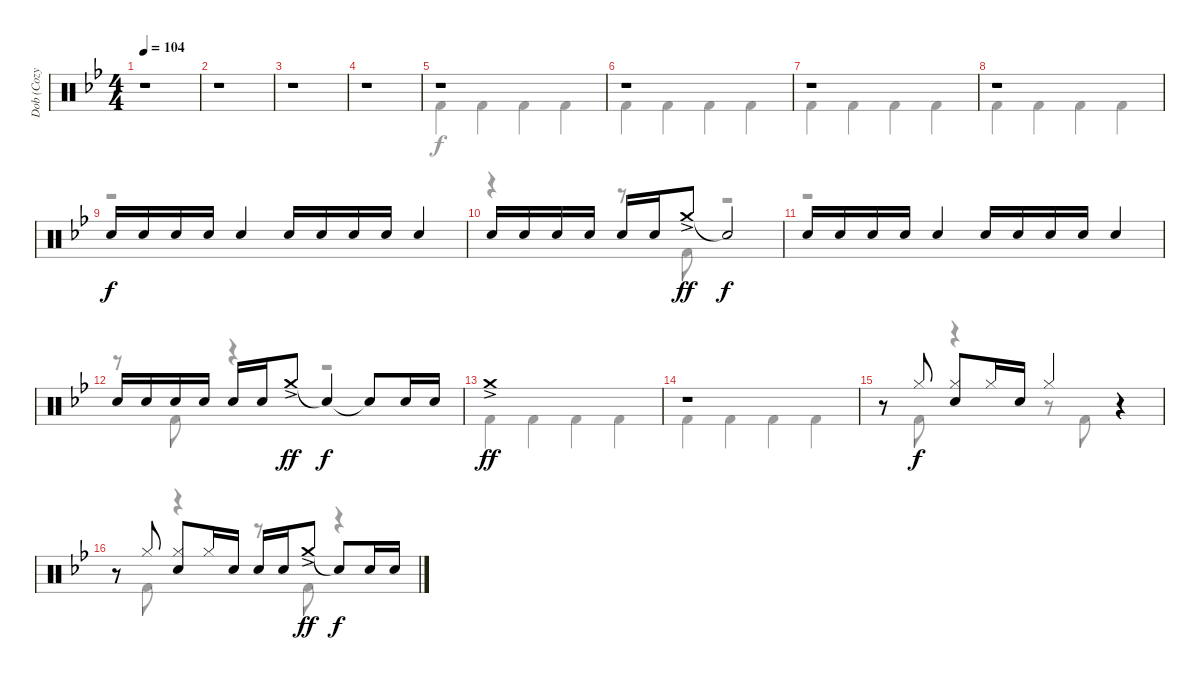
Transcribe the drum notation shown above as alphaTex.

\track ("Dob (Cozy Powell)" "Dob (Cozy ") {instrument percussion}
\staff {score}
\articulation defaults
\voice
\ts (4 4)
\tempo 104
\clef neutral
\ks bb
r.1{dy f} |
r.1 |
r.1 |
r.1 |
r.1 |
r.1 |
r.1 |
r.1 |
"Electric Snare (hit)".16 "Electric Snare (hit)".16 "Electric Snare (hit)".16 "Electric Snare (hit)".16 "Electric Snare (hit)".4 "Electric Snare (hit)".16 "Electric Snare (hit)".16 "Electric Snare (hit)".16 "Electric Snare (hit)".16 "Electric Snare (hit)".4 |
"Electric Snare (hit)".16 "Electric Snare (hit)".16 "Electric Snare (hit)".16 "Electric Snare (hit)".16 "Electric Snare (hit)".16 "Electric Snare (hit)".16 "Crash medium (hit)"{ac}.8{dy ff} "Snare (hit)"{t}.2{dy f} |
"Electric Snare (hit)".16 "Electric Snare (hit)".16 "Electric Snare (hit)".16 "Electric Snare (hit)".16 "Electric Snare (hit)".4 "Electric Snare (hit)".16 "Electric Snare (hit)".16 "Electric Snare (hit)".16 "Electric Snare (hit)".16 "Electric Snare (hit)".4 |
"Electric Snare (hit)".16 "Electric Snare (hit)".16 "Electric Snare (hit)".16 "Electric Snare (hit)".16 "Electric Snare (hit)".16 "Electric Snare (hit)".16 "Crash medium (hit)"{ac}.8{dy ff} "Snare (hit)"{t}.4{dy f} "Snare (hit)"{t}.8 "Electric Snare (hit)".16 "Electric Snare (hit)".16 |
"Crash medium (hit)"{ac}.1{dy ff} |
r.1 |
r.8 "Hi-Hat (closed)".8{dy f} ("Hi-Hat (closed)" "Electric Snare (hit)").8 "Hi-Hat (closed)".16 "Electric Snare (hit)".16 "Hi-Hat (closed)".4 r.4 |
r.8 "Hi-Hat (closed)".8 ("Hi-Hat (closed)" "Electric Snare (hit)").8 "Hi-Hat (closed)".16 "Electric Snare (hit)".16 "Electric Snare (hit)".16 "Electric Snare (hit)".16 "Crash medium (hit)"{ac}.8{dy ff} "Snare (hit)"{t}.8{dy f} "Electric Snare (hit)".16 "Electric Snare (hit)".16
\voice
\clef neutral
\ottava regular
\simile none
\ks bb
r.1{dy f} |
r.1 |
r.1 |
r.1 |
"Kick (hit) 2".4 "Kick (hit) 2".4 "Kick (hit) 2".4 "Kick (hit) 2".4 |
"Kick (hit) 2".4 "Kick (hit) 2".4 "Kick (hit) 2".4 "Kick (hit) 2".4 |
"Kick (hit) 2".4 "Kick (hit) 2".4 "Kick (hit) 2".4 "Kick (hit) 2".4 |
"Kick (hit) 2".4 "Kick (hit) 2".4 "Kick (hit) 2".4 "Kick (hit) 2".4 |
r.1 |
r.4 r.8 "Kick (hit) 2".8 r.2 |
r.1 |
r.8 "Kick (hit) 2".8 r.4 r.2 |
"Kick (hit) 2".4 "Kick (hit) 2".4 "Kick (hit) 2".4 "Kick (hit) 2".4 |
"Kick (hit) 2".4 "Kick (hit) 2".4 "Kick (hit) 2".4 "Kick (hit) 2".4 |
r.8 "Kick (hit) 2".8 r.4 r.8 "Kick (hit) 2".8 r.4 |
r.8 "Kick (hit) 2".8 r.4 r.8 "Kick (hit) 2".8 r.4
